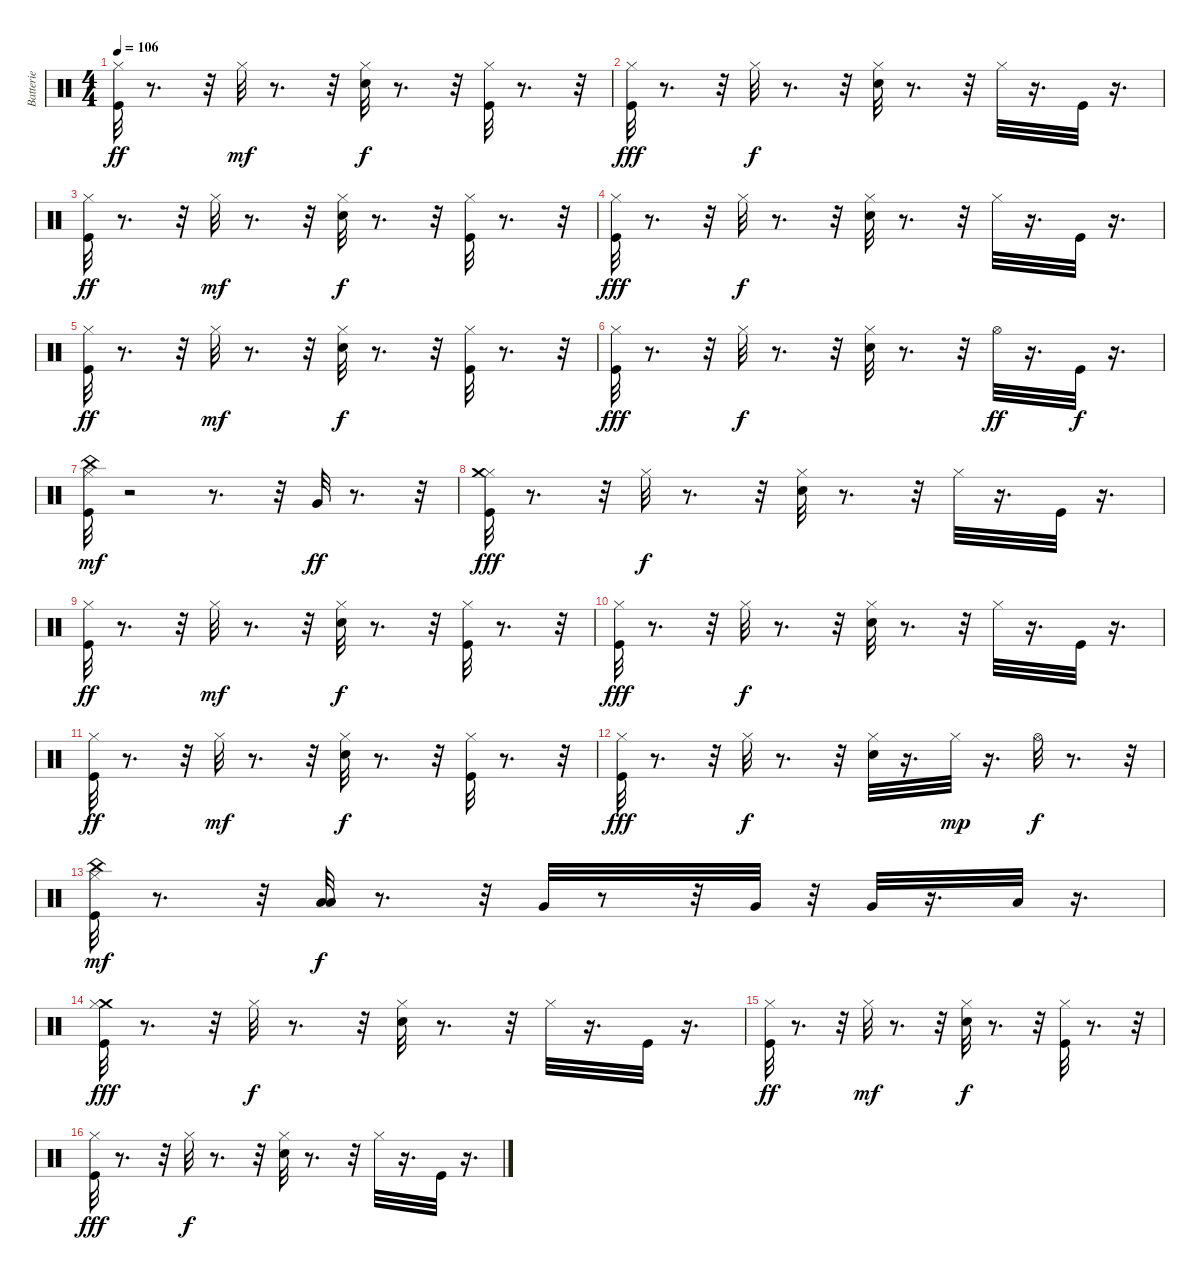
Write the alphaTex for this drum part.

\track ("Batterie" "Batterie") {instrument percussion}
\staff {score}
\articulation defaults
\ts (4 4)
\tempo 106
\clef neutral
\ks c
("Kick (hit)" "Hi-Hat (closed)").32{dy ff} r.8{d} r.32 "Hi-Hat (closed)".32{dy mf} r.8{d} r.32 ("Snare (hit) 2" "Hi-Hat (closed)").32{dy f} r.8{d} r.32 ("Kick (hit)" "Hi-Hat (closed)").32 r.8{d} r.32 |
("Hi-Hat (closed)" "Kick (hit)").32{dy fff} r.8{d} r.32 "Hi-Hat (closed)".32{dy f} r.8{d} r.32 ("Snare (hit) 2" "Hi-Hat (closed)").32 r.8{d} r.32 "Hi-Hat (closed)".32 r.16{d} "Kick (hit)".32 r.16{d} |
("Kick (hit)" "Hi-Hat (closed)").32{dy ff} r.8{d} r.32 "Hi-Hat (closed)".32{dy mf} r.8{d} r.32 ("Hi-Hat (closed)" "Snare (hit) 2").32{dy f} r.8{d} r.32 ("Kick (hit)" "Hi-Hat (closed)").32 r.8{d} r.32 |
("Hi-Hat (closed)" "Kick (hit)").32{dy fff} r.8{d} r.32 "Hi-Hat (closed)".32{dy f} r.8{d} r.32 ("Snare (hit) 2" "Hi-Hat (closed)").32 r.8{d} r.32 "Hi-Hat (closed)".32 r.16{d} "Kick (hit)".32 r.16{d} |
("Kick (hit)" "Hi-Hat (closed)").32{dy ff} r.8{d} r.32 "Hi-Hat (closed)".32{dy mf} r.8{d} r.32 ("Hi-Hat (closed)" "Snare (hit) 2").32{dy f} r.8{d} r.32 ("Kick (hit)" "Hi-Hat (closed)").32 r.8{d} r.32 |
("Hi-Hat (closed)" "Kick (hit)").32{dy fff} r.8{d} r.32 "Hi-Hat (closed)".32{dy f} r.8{d} r.32 ("Snare (hit) 2" "Hi-Hat (closed)").32 r.8{d} r.32 "Hi-Hat (open)".32{dy ff} r.16{d} "Kick (hit)".32{dy f} r.16{d} |
("Kick (hit)" "China (hit)" "Hi-Hat (closed)").32{dy mf} r.2 r.8{d} r.32 "Very Low Tom (hit)".32{dy ff} r.8{d} r.32 |
("Hi-Hat (closed)" "Crash medium (hit)" "Kick (hit)").32{dy fff} r.8{d} r.32 "Hi-Hat (closed)".32{dy f} r.8{d} r.32 ("Snare (hit) 2" "Hi-Hat (closed)").32 r.8{d} r.32 "Hi-Hat (closed)".32 r.16{d} "Kick (hit)".32 r.16{d} |
("Kick (hit)" "Hi-Hat (closed)").32{dy ff} r.8{d} r.32 "Hi-Hat (closed)".32{dy mf} r.8{d} r.32 ("Hi-Hat (closed)" "Snare (hit) 2").32{dy f} r.8{d} r.32 ("Kick (hit)" "Hi-Hat (closed)").32 r.8{d} r.32 |
("Hi-Hat (closed)" "Kick (hit)").32{dy fff} r.8{d} r.32 "Hi-Hat (closed)".32{dy f} r.8{d} r.32 ("Snare (hit) 2" "Hi-Hat (closed)").32 r.8{d} r.32 "Hi-Hat (closed)".32 r.16{d} "Kick (hit)".32 r.16{d} |
("Kick (hit)" "Hi-Hat (closed)").32{dy ff} r.8{d} r.32 "Hi-Hat (closed)".32{dy mf} r.8{d} r.32 ("Snare (hit) 2" "Hi-Hat (closed)").32{dy f} r.8{d} r.32 ("Kick (hit)" "Hi-Hat (closed)").32 r.8{d} r.32 |
("Hi-Hat (closed)" "Kick (hit)").32{dy fff} r.8{d} r.32 "Hi-Hat (closed)".32{dy f} r.8{d} r.32 ("Snare (hit) 2" "Hi-Hat (closed)").32 r.16{d} "Hi-Hat (closed)".32{dy mp} r.16{d} "Hi-Hat (open)".32{dy f} r.8{d} r.32 |
("Kick (hit)" "Hi-Hat (closed)" "China (hit)").32{dy mf} r.8{d} r.32 ("Low Tom (hit)" "Low Tom (hit)").32{dy f} r.8{d} r.32 "Very Low Tom (hit)".32 r.8 r.32 "Very Low Tom (hit)".32 r.32 "Very Low Tom (hit)".32 r.16{d} "Low Floor Tom (hit)".32 r.16{d} |
("Crash medium (hit)" "Hi-Hat (closed)" "Kick (hit)").32{dy fff} r.8{d} r.32 "Hi-Hat (closed)".32{dy f} r.8{d} r.32 ("Snare (hit) 2" "Hi-Hat (closed)").32 r.8{d} r.32 "Hi-Hat (closed)".32 r.16{d} "Kick (hit)".32 r.16{d} |
("Kick (hit)" "Hi-Hat (closed)").32{dy ff} r.8{d} r.32 "Hi-Hat (closed)".32{dy mf} r.8{d} r.32 ("Snare (hit) 2" "Hi-Hat (closed)").32{dy f} r.8{d} r.32 ("Kick (hit)" "Hi-Hat (closed)").32 r.8{d} r.32 |
("Hi-Hat (closed)" "Kick (hit)").32{dy fff} r.8{d} r.32 "Hi-Hat (closed)".32{dy f} r.8{d} r.32 ("Snare (hit) 2" "Hi-Hat (closed)").32 r.8{d} r.32 "Hi-Hat (closed)".32 r.16{d} "Kick (hit)".32 r.16{d}
